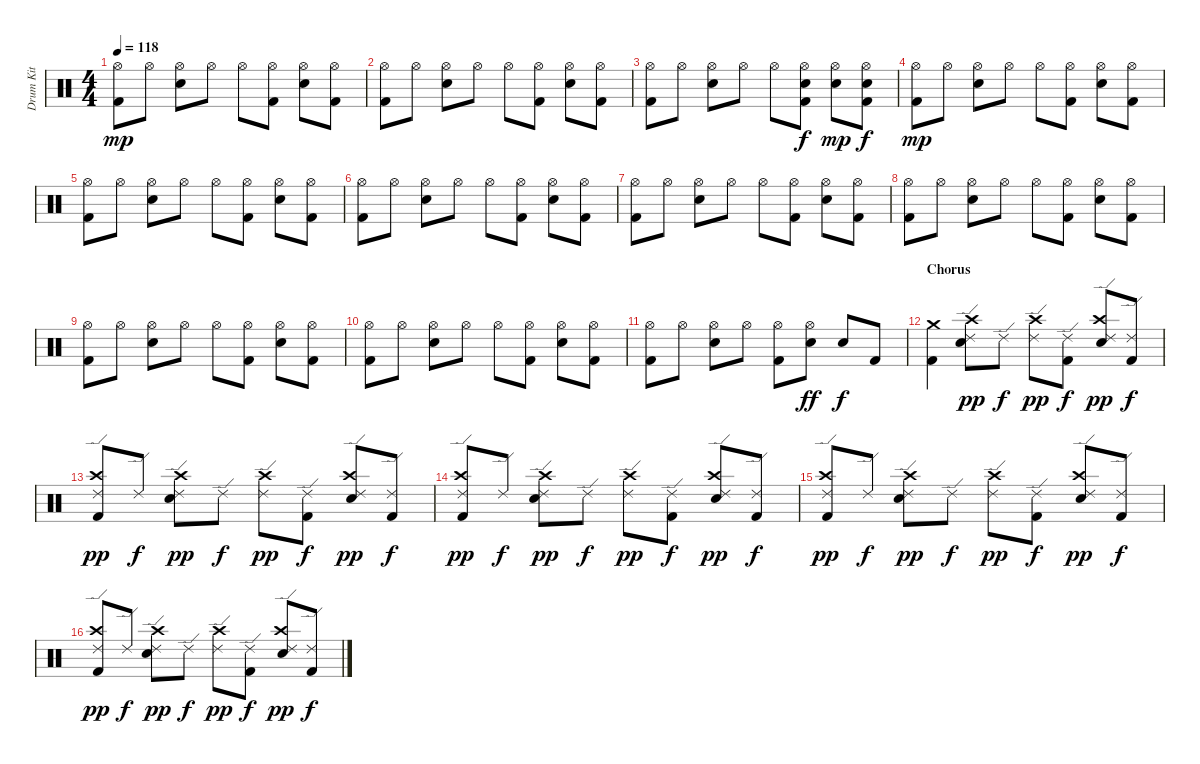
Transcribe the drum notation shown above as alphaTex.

\track ("Drum Kit" "Drum Kit") {instrument percussion}
\staff {score}
\articulation defaults
\ts (4 4)
\tempo 118
\clef neutral
\ks c
("Hi-Hat (open)" "Kick (hit) 2").8{dy mp} "Hi-Hat (open)".8 ("Hi-Hat (open)" "Electric Snare (hit)").8 "Hi-Hat (open)".8 "Hi-Hat (open)".8 ("Hi-Hat (open)" "Kick (hit) 2").8 ("Hi-Hat (open)" "Electric Snare (hit)").8 ("Hi-Hat (open)" "Kick (hit) 2").8 |
("Hi-Hat (open)" "Kick (hit) 2").8 "Hi-Hat (open)".8 ("Hi-Hat (open)" "Electric Snare (hit)").8 "Hi-Hat (open)".8 "Hi-Hat (open)".8 ("Hi-Hat (open)" "Kick (hit) 2").8 ("Hi-Hat (open)" "Electric Snare (hit)").8 ("Hi-Hat (open)" "Kick (hit) 2").8 |
("Hi-Hat (open)" "Kick (hit) 2").8 "Hi-Hat (open)".8 ("Hi-Hat (open)" "Electric Snare (hit)").8 "Hi-Hat (open)".8 "Hi-Hat (open)".8 ("Snare (hit)"{x} "Hi-Hat (open)" "Kick (hit) 2").8{dy f} ("Hi-Hat (open)" "Electric Snare (hit)").8{dy mp} ("Snare (hit)"{x} "Hi-Hat (open)" "Kick (hit) 2").8{dy f} |
("Hi-Hat (open)" "Kick (hit) 2").8{dy mp} "Hi-Hat (open)".8 ("Hi-Hat (open)" "Electric Snare (hit)").8 "Hi-Hat (open)".8 "Hi-Hat (open)".8 ("Hi-Hat (open)" "Kick (hit) 2").8 ("Hi-Hat (open)" "Electric Snare (hit)").8 ("Hi-Hat (open)" "Kick (hit) 2").8 |
("Hi-Hat (open)" "Kick (hit) 2").8 "Hi-Hat (open)".8 ("Hi-Hat (open)" "Electric Snare (hit)").8 "Hi-Hat (open)".8 "Hi-Hat (open)".8 ("Hi-Hat (open)" "Kick (hit) 2").8 ("Hi-Hat (open)" "Electric Snare (hit)").8 ("Hi-Hat (open)" "Kick (hit) 2").8 |
("Hi-Hat (open)" "Kick (hit) 2").8 "Hi-Hat (open)".8 ("Hi-Hat (open)" "Electric Snare (hit)").8 "Hi-Hat (open)".8 "Hi-Hat (open)".8 ("Hi-Hat (open)" "Kick (hit) 2").8 ("Hi-Hat (open)" "Electric Snare (hit)").8 ("Hi-Hat (open)" "Kick (hit) 2").8 |
("Hi-Hat (open)" "Kick (hit) 2").8 "Hi-Hat (open)".8 ("Hi-Hat (open)" "Electric Snare (hit)").8 "Hi-Hat (open)".8 "Hi-Hat (open)".8 ("Hi-Hat (open)" "Kick (hit) 2").8 ("Hi-Hat (open)" "Electric Snare (hit)").8 ("Hi-Hat (open)" "Kick (hit) 2").8 |
("Hi-Hat (open)" "Kick (hit) 2").8 "Hi-Hat (open)".8 ("Hi-Hat (open)" "Electric Snare (hit)").8 "Hi-Hat (open)".8 "Hi-Hat (open)".8 ("Hi-Hat (open)" "Kick (hit) 2").8 ("Hi-Hat (open)" "Electric Snare (hit)").8 ("Hi-Hat (open)" "Kick (hit) 2").8 |
("Hi-Hat (open)" "Kick (hit) 2").8 "Hi-Hat (open)".8 ("Hi-Hat (open)" "Electric Snare (hit)").8 "Hi-Hat (open)".8 "Hi-Hat (open)".8 ("Hi-Hat (open)" "Kick (hit) 2").8 ("Hi-Hat (open)" "Electric Snare (hit)").8 ("Hi-Hat (open)" "Kick (hit) 2").8 |
("Hi-Hat (open)" "Kick (hit) 2").8 "Hi-Hat (open)".8 ("Hi-Hat (open)" "Electric Snare (hit)").8 "Hi-Hat (open)".8 "Hi-Hat (open)".8 ("Hi-Hat (open)" "Kick (hit) 2").8 ("Hi-Hat (open)" "Electric Snare (hit)").8 ("Hi-Hat (open)" "Kick (hit) 2").8 |
("Hi-Hat (open)" "Kick (hit) 2").8 "Hi-Hat (open)".8 ("Hi-Hat (open)" "Electric Snare (hit)").8 "Hi-Hat (open)".8 ("Hi-Hat (open)" "Kick (hit) 2").8 ("Snare (hit)"{x} "Hi-Hat (open)").8{dy ff} "Electric Snare (hit)".8{dy f} "Kick (hit) 2".8 |
\section ("" "Chorus")
("Crash medium (hit)" "Kick (hit) 2").4 ("Crash high (hit)" "Ride (edge) 2" "Electric Snare (hit)").8{dy pp} "Ride (edge) 2".8{dy f} ("Crash high (hit)" "Ride (edge) 2").8{dy pp} ("Ride (edge) 2" "Kick (hit) 2").8{dy f} ("Crash high (hit)" "Ride (edge) 2" "Electric Snare (hit)").8{dy pp} ("Ride (edge) 2" "Kick (hit) 2").8{dy f} |
("Crash high (hit)" "Ride (edge) 2" "Kick (hit) 2").8{dy pp} "Ride (edge) 2".8{dy f} ("Crash high (hit)" "Ride (edge) 2" "Electric Snare (hit)").8{dy pp} "Ride (edge) 2".8{dy f} ("Crash high (hit)" "Ride (edge) 2").8{dy pp} ("Ride (edge) 2" "Kick (hit) 2").8{dy f} ("Crash high (hit)" "Ride (edge) 2" "Electric Snare (hit)").8{dy pp} ("Ride (edge) 2" "Kick (hit) 2").8{dy f} |
("Crash high (hit)" "Ride (edge) 2" "Kick (hit) 2").8{dy pp} "Ride (edge) 2".8{dy f} ("Crash high (hit)" "Ride (edge) 2" "Electric Snare (hit)").8{dy pp} "Ride (edge) 2".8{dy f} ("Crash high (hit)" "Ride (edge) 2").8{dy pp} ("Ride (edge) 2" "Kick (hit) 2").8{dy f} ("Crash high (hit)" "Ride (edge) 2" "Electric Snare (hit)").8{dy pp} ("Ride (edge) 2" "Kick (hit) 2").8{dy f} |
("Crash high (hit)" "Ride (edge) 2" "Kick (hit) 2").8{dy pp} "Ride (edge) 2".8{dy f} ("Crash high (hit)" "Ride (edge) 2" "Electric Snare (hit)").8{dy pp} "Ride (edge) 2".8{dy f} ("Crash high (hit)" "Ride (edge) 2").8{dy pp} ("Ride (edge) 2" "Kick (hit) 2").8{dy f} ("Crash high (hit)" "Ride (edge) 2" "Electric Snare (hit)").8{dy pp} ("Ride (edge) 2" "Kick (hit) 2").8{dy f} |
("Crash high (hit)" "Ride (edge) 2" "Kick (hit) 2").8{dy pp} "Ride (edge) 2".8{dy f} ("Crash high (hit)" "Ride (edge) 2" "Electric Snare (hit)").8{dy pp} "Ride (edge) 2".8{dy f} ("Crash high (hit)" "Ride (edge) 2").8{dy pp} ("Ride (edge) 2" "Kick (hit) 2").8{dy f} ("Crash high (hit)" "Ride (edge) 2" "Electric Snare (hit)").8{dy pp} ("Ride (edge) 2" "Kick (hit) 2").8{dy f}
